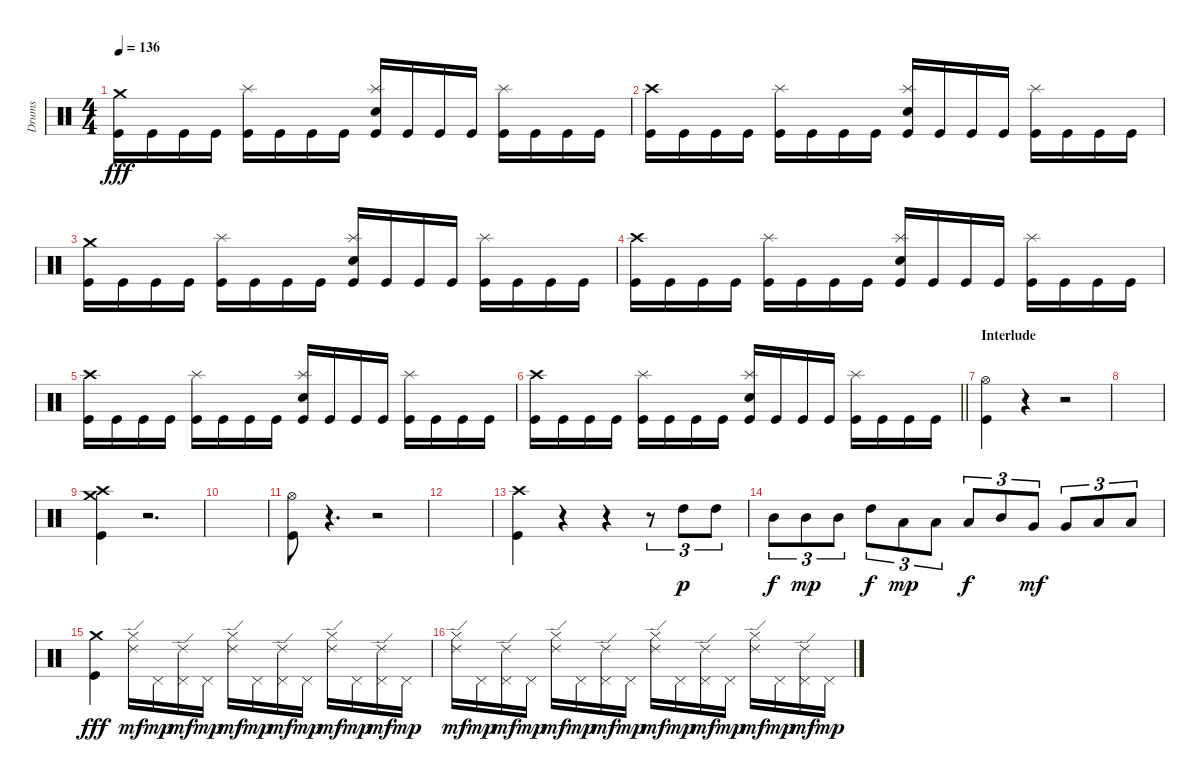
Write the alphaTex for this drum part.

\track ("Drums" "Drums") {instrument percussion}
\staff {score}
\articulation defaults
\ts (4 4)
\tempo 136
\clef neutral
\ks c
("Crash medium (hit)" "Kick (hit)").16{dy fff} "Kick (hit)".16 "Kick (hit)".16 "Kick (hit)".16 ("Splash (hit)" "Kick (hit)").16 "Kick (hit)".16 "Kick (hit)".16 "Kick (hit)".16 ("Splash (hit)" "Electric Snare (hit)" "Kick (hit)").16 "Kick (hit)".16 "Kick (hit)".16 "Kick (hit)".16 ("Splash (hit)" "Kick (hit)").16 "Kick (hit)".16 "Kick (hit)".16 "Kick (hit)".16 |
("Crash high (hit)" "Kick (hit)").16 "Kick (hit)".16 "Kick (hit)".16 "Kick (hit)".16 ("Splash (hit)" "Kick (hit)").16 "Kick (hit)".16 "Kick (hit)".16 "Kick (hit)".16 ("Splash (hit)" "Electric Snare (hit)" "Kick (hit)").16 "Kick (hit)".16 "Kick (hit)".16 "Kick (hit)".16 ("Splash (hit)" "Kick (hit)").16 "Kick (hit)".16 "Kick (hit)".16 "Kick (hit)".16 |
("Crash medium (hit)" "Kick (hit)").16 "Kick (hit)".16 "Kick (hit)".16 "Kick (hit)".16 ("Splash (hit)" "Kick (hit)").16 "Kick (hit)".16 "Kick (hit)".16 "Kick (hit)".16 ("Splash (hit)" "Electric Snare (hit)" "Kick (hit)").16 "Kick (hit)".16 "Kick (hit)".16 "Kick (hit)".16 ("Splash (hit)" "Kick (hit)").16 "Kick (hit)".16 "Kick (hit)".16 "Kick (hit)".16 |
("Crash high (hit)" "Kick (hit)").16 "Kick (hit)".16 "Kick (hit)".16 "Kick (hit)".16 ("Splash (hit)" "Kick (hit)").16 "Kick (hit)".16 "Kick (hit)".16 "Kick (hit)".16 ("Splash (hit)" "Electric Snare (hit)" "Kick (hit)").16 "Kick (hit)".16 "Kick (hit)".16 "Kick (hit)".16 ("Splash (hit)" "Kick (hit)").16 "Kick (hit)".16 "Kick (hit)".16 "Kick (hit)".16 |
("Crash high (hit)" "Kick (hit)").16 "Kick (hit)".16 "Kick (hit)".16 "Kick (hit)".16 ("Splash (hit)" "Kick (hit)").16 "Kick (hit)".16 "Kick (hit)".16 "Kick (hit)".16 ("Splash (hit)" "Electric Snare (hit)" "Kick (hit)").16 "Kick (hit)".16 "Kick (hit)".16 "Kick (hit)".16 ("Splash (hit)" "Kick (hit)").16 "Kick (hit)".16 "Kick (hit)".16 "Kick (hit)".16 |
\barLineRight lightlight
("Crash high (hit)" "Kick (hit)").16 "Kick (hit)".16 "Kick (hit)".16 "Kick (hit)".16 ("Splash (hit)" "Kick (hit)").16 "Kick (hit)".16 "Kick (hit)".16 "Kick (hit)".16 ("Splash (hit)" "Electric Snare (hit)" "Kick (hit)").16 "Kick (hit)".16 "Kick (hit)".16 "Kick (hit)".16 ("Splash (hit)" "Kick (hit)").16 "Kick (hit)".16 "Kick (hit)".16 "Kick (hit)".16 |
\section ("" "Interlude")
("Hi-Hat (open)" "Kick (hit)").4 r.4{volume 0} r.2 |
|
("Crash medium (hit)" "Crash high (hit)" "Kick (hit)").4{volume 15} r.2{d} |
|
("Hi-Hat (open)" "Kick (hit)").8 r.4{d volume 0} r.2 |
|
("Crash high (hit)" "Kick (hit)").4{volume 15} r.4 r.4 r.8{tu (3 2)} "High Tom (hit)".8{tu (3 2) dy p} "High Tom (hit)".8{tu (3 2)} |
"Mid Tom (hit)".8{tu (3 2) dy f} "Mid Tom (hit)".8{tu (3 2) dy mp} "Mid Tom (hit)".8{tu (3 2)} "High Tom (hit)".8{tu (3 2) dy f} "Low Tom (hit)".8{tu (3 2) dy mp} "Low Tom (hit)".8{tu (3 2)} "Low Tom (hit)".8{tu (3 2) dy f} "Mid Tom (hit)".8{tu (3 2)} "Very Low Tom (hit)".8{tu (3 2) dy mf} "Very Low Tom (hit)".8{tu (3 2)} "Low Floor Tom (hit)".8{tu (3 2)} "Low Floor Tom (hit)".8{tu (3 2)} |
("Crash medium (hit)" "Kick (hit)").4{dy fff} ("Ride (edge) 2" "Hi-Hat (closed)").16{dy mf} "Pedal Hi-Hat (hit)".16{dy mp} ("Ride (edge) 2" "Pedal Hi-Hat (hit)").16{dy mf} "Pedal Hi-Hat (hit)".16{dy mp} ("Ride (edge) 2" "Hi-Hat (closed)").16{dy mf} "Pedal Hi-Hat (hit)".16{dy mp} ("Ride (edge) 2" "Pedal Hi-Hat (hit)").16{dy mf} "Pedal Hi-Hat (hit)".16{dy mp} ("Ride (edge) 2" "Hi-Hat (closed)").16{dy mf} "Pedal Hi-Hat (hit)".16{dy mp} ("Ride (edge) 2" "Pedal Hi-Hat (hit)").16{dy mf} "Pedal Hi-Hat (hit)".16{dy mp} |
("Ride (edge) 2" "Hi-Hat (closed)").16{dy mf} "Pedal Hi-Hat (hit)".16{dy mp} ("Ride (edge) 2" "Pedal Hi-Hat (hit)").16{dy mf} "Pedal Hi-Hat (hit)".16{dy mp} ("Ride (edge) 2" "Hi-Hat (closed)").16{dy mf} "Pedal Hi-Hat (hit)".16{dy mp} ("Ride (edge) 2" "Pedal Hi-Hat (hit)").16{dy mf} "Pedal Hi-Hat (hit)".16{dy mp} ("Ride (edge) 2" "Hi-Hat (closed)").16{dy mf} "Pedal Hi-Hat (hit)".16{dy mp} ("Ride (edge) 2" "Pedal Hi-Hat (hit)").16{dy mf} "Pedal Hi-Hat (hit)".16{dy mp} ("Ride (edge) 2" "Hi-Hat (closed)").16{dy mf} "Pedal Hi-Hat (hit)".16{dy mp} ("Ride (edge) 2" "Pedal Hi-Hat (hit)").16{dy mf} "Pedal Hi-Hat (hit)".16{dy mp}
